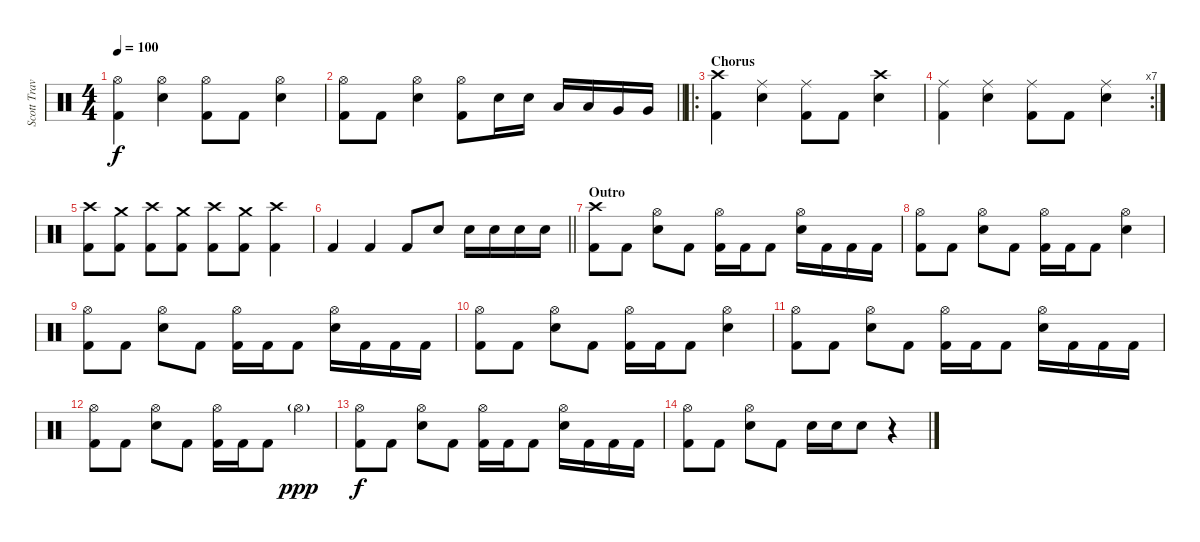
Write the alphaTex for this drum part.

\track ("Scott Travis" "Scott Trav") {instrument percussion}
\staff {score}
\articulation defaults
\ts (4 4)
\tempo 100
\clef neutral
\ks c
("Hi-Hat (open)" "Kick (hit) 2").4{dy f} ("Hi-Hat (open)" "Snare (hit) 2").4 ("Hi-Hat (open)" "Kick (hit) 2").8 "Kick (hit) 2".8 ("Hi-Hat (open)" "Snare (hit) 2").4 |
\barLineRight lightlight
("Hi-Hat (open)" "Kick (hit) 2").8 "Kick (hit) 2".8 ("Hi-Hat (open)" "Snare (hit) 2").4 ("Hi-Hat (open)" "Kick (hit) 2").8 "Snare (hit) 2".16 "Snare (hit) 2".16 "Low Tom (hit)".16 "Low Tom (hit)".16 "Very Low Tom (hit)".16 "Very Low Tom (hit)".16 |
\ro
\section ("" "Chorus")
("Crash high (hit)" "Kick (hit) 2").4 ("Ride (middle)" "Snare (hit) 2").4 ("Ride (middle)" "Kick (hit) 2").8 "Kick (hit) 2".8 ("Crash high (hit)" "Snare (hit) 2").4 |
\rc 7
("Ride (middle)" "Kick (hit) 2").4 ("Ride (middle)" "Snare (hit) 2").4 ("Ride (middle)" "Kick (hit) 2").8 "Kick (hit) 2".8 ("Ride (middle)" "Snare (hit) 2").4 |
("Crash high (hit)" "Kick (hit) 2").8 ("Crash medium (hit)" "Kick (hit) 2").8 ("Crash high (hit)" "Kick (hit) 2").8 ("Crash medium (hit)" "Kick (hit) 2").8 ("Crash high (hit)" "Kick (hit) 2").8 ("Crash medium (hit)" "Kick (hit) 2").8 ("Crash high (hit)" "Kick (hit) 2").4 |
\barLineRight lightlight "Kick (hit) 2".4 "Kick (hit) 2".4 "Kick (hit) 2".8 "Snare (hit) 2".8 "Snare (hit) 2".16 "Snare (hit) 2".16 "Snare (hit) 2".16 "Snare (hit) 2".16
|
\section ("" "Outro")
("Crash high (hit)" "Kick (hit) 2").8 "Kick (hit) 2".8 ("Hi-Hat (open)" "Snare (hit) 2").8 "Kick (hit) 2".8 ("Hi-Hat (open)" "Kick (hit) 2").16 "Kick (hit) 2".16 "Kick (hit) 2".8 ("Hi-Hat (open)" "Snare (hit) 2").16 "Kick (hit) 2".16 "Kick (hit) 2".16 "Kick (hit) 2".16 |
("Hi-Hat (open)" "Kick (hit) 2").8 "Kick (hit) 2".8 ("Hi-Hat (open)" "Snare (hit) 2").8 "Kick (hit) 2".8 ("Hi-Hat (open)" "Kick (hit) 2").16 "Kick (hit) 2".16 "Kick (hit) 2".8 ("Hi-Hat (open)" "Snare (hit) 2").4 |
("Hi-Hat (open)" "Kick (hit) 2").8 "Kick (hit) 2".8 ("Hi-Hat (open)" "Snare (hit) 2").8 "Kick (hit) 2".8 ("Hi-Hat (open)" "Kick (hit) 2").16 "Kick (hit) 2".16 "Kick (hit) 2".8 ("Hi-Hat (open)" "Snare (hit) 2").16 "Kick (hit) 2".16 "Kick (hit) 2".16 "Kick (hit) 2".16 |
("Hi-Hat (open)" "Kick (hit) 2").8 "Kick (hit) 2".8 ("Hi-Hat (open)" "Snare (hit) 2").8 "Kick (hit) 2".8 ("Hi-Hat (open)" "Kick (hit) 2").16 "Kick (hit) 2".16 "Kick (hit) 2".8 ("Hi-Hat (open)" "Snare (hit) 2").4 |
("Hi-Hat (open)" "Kick (hit) 2").8 "Kick (hit) 2".8 ("Hi-Hat (open)" "Snare (hit) 2").8 "Kick (hit) 2".8 ("Hi-Hat (open)" "Kick (hit) 2").16 "Kick (hit) 2".16 "Kick (hit) 2".8 ("Hi-Hat (open)" "Snare (hit) 2").16 "Kick (hit) 2".16 "Kick (hit) 2".16 "Kick (hit) 2".16 |
("Hi-Hat (open)" "Kick (hit) 2").8 "Kick (hit) 2".8 ("Hi-Hat (open)" "Snare (hit) 2").8 "Kick (hit) 2".8 ("Hi-Hat (open)" "Kick (hit) 2").16 "Kick (hit) 2".16 "Kick (hit) 2".8 "Hi-Hat (open)"{g}.4{dy ppp} |
("Hi-Hat (open)" "Kick (hit) 2").8{dy f} "Kick (hit) 2".8 ("Hi-Hat (open)" "Snare (hit) 2").8 "Kick (hit) 2".8 ("Hi-Hat (open)" "Kick (hit) 2").16 "Kick (hit) 2".16 "Kick (hit) 2".8 ("Hi-Hat (open)" "Snare (hit) 2").16 "Kick (hit) 2".16 "Kick (hit) 2".16 "Kick (hit) 2".16 |
("Hi-Hat (open)" "Kick (hit) 2").8 "Kick (hit) 2".8 ("Hi-Hat (open)" "Snare (hit) 2").8 "Kick (hit) 2".8 "Snare (hit) 2".16 "Snare (hit) 2".16 "Snare (hit) 2".8 r.4
